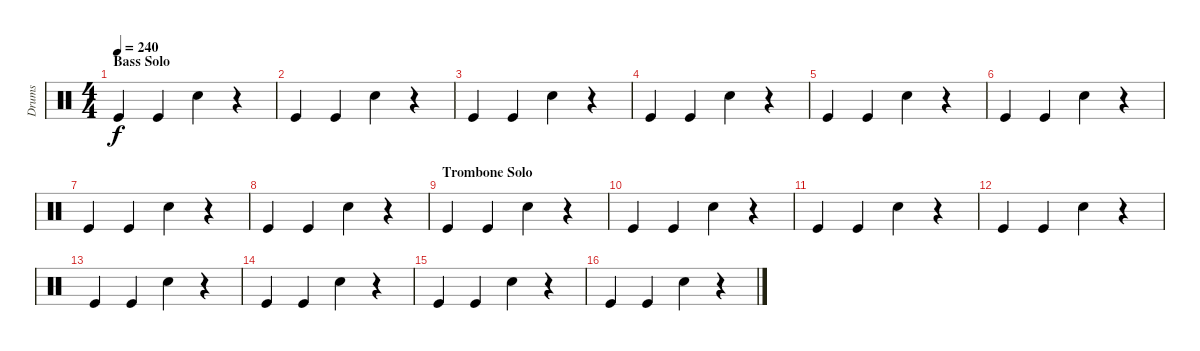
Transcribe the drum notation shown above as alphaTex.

\track ("Drums" "Drums") {instrument percussion}
\staff {score}
\articulation defaults
\ts (4 4)
\section ("" "Bass Solo")
\tempo 240
\clef neutral
\ks c "Kick (hit)".4{dy f} "Kick (hit)".4 "Snare (hit) 2".4
r.4 |
"Kick (hit)".4 "Kick (hit)".4 "Snare (hit) 2".4 r.4 |
"Kick (hit)".4 "Kick (hit)".4 "Snare (hit) 2".4 r.4 |
"Kick (hit)".4 "Kick (hit)".4 "Snare (hit) 2".4 r.4 |
"Kick (hit)".4 "Kick (hit)".4 "Snare (hit) 2".4 r.4 |
"Kick (hit)".4 "Kick (hit)".4 "Snare (hit) 2".4 r.4 |
"Kick (hit)".4 "Kick (hit)".4 "Snare (hit) 2".4 r.4 |
"Kick (hit)".4 "Kick (hit)".4 "Snare (hit) 2".4 r.4 |
\section ("" "Trombone Solo")
"Kick (hit)".4 "Kick (hit)".4 "Snare (hit) 2".4 r.4 |
"Kick (hit)".4 "Kick (hit)".4 "Snare (hit) 2".4 r.4 |
"Kick (hit)".4 "Kick (hit)".4 "Snare (hit) 2".4 r.4 |
"Kick (hit)".4 "Kick (hit)".4 "Snare (hit) 2".4 r.4 |
"Kick (hit)".4 "Kick (hit)".4 "Snare (hit) 2".4 r.4 |
"Kick (hit)".4 "Kick (hit)".4 "Snare (hit) 2".4 r.4 |
"Kick (hit)".4 "Kick (hit)".4 "Snare (hit) 2".4 r.4 |
"Kick (hit)".4 "Kick (hit)".4 "Snare (hit) 2".4 r.4
